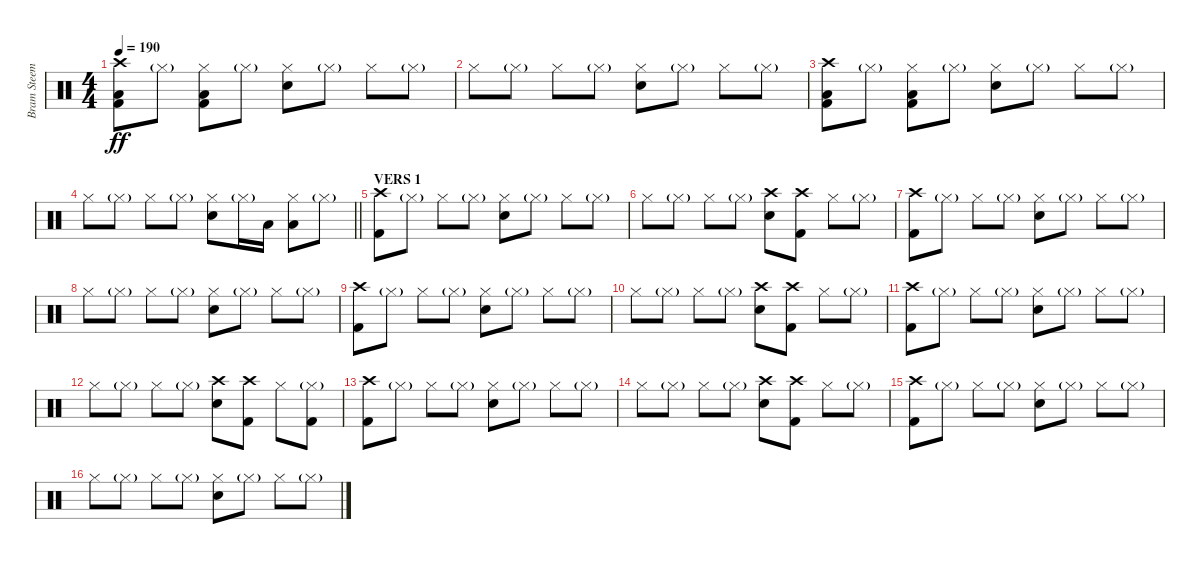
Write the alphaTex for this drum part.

\track ("Bram Steemans" "Bram Steem") {instrument percussion}
\staff {score}
\articulation defaults
\ts (4 4)
\tempo 190
\clef neutral
\ks c
("Crash high (hit)" "Low Floor Tom (hit)" "Kick (hit) 2").8{dy ff} "Hi-Hat (closed)"{g}.8 ("Hi-Hat (closed)" "Low Floor Tom (hit)" "Kick (hit) 2").8 "Hi-Hat (closed)"{g}.8 ("Hi-Hat (closed)" "Snare (hit) 2").8 "Hi-Hat (closed)"{g}.8 "Hi-Hat (closed)".8 "Hi-Hat (closed)"{g}.8 |
"Hi-Hat (closed)".8 "Hi-Hat (closed)"{g}.8 "Hi-Hat (closed)".8 "Hi-Hat (closed)"{g}.8 ("Hi-Hat (closed)" "Snare (hit) 2").8 "Hi-Hat (closed)"{g}.8 "Hi-Hat (closed)".8 "Hi-Hat (closed)"{g}.8 |
("Crash high (hit)" "Low Floor Tom (hit)" "Kick (hit) 2").8 "Hi-Hat (closed)"{g}.8 ("Hi-Hat (closed)" "Low Floor Tom (hit)" "Kick (hit) 2").8 "Hi-Hat (closed)"{g}.8 ("Hi-Hat (closed)" "Snare (hit) 2").8 "Hi-Hat (closed)"{g}.8 "Hi-Hat (closed)".8 "Hi-Hat (closed)"{g}.8 |
\barLineRight lightlight "Hi-Hat (closed)".8 "Hi-Hat (closed)"{g}.8 "Hi-Hat (closed)".8 "Hi-Hat (closed)"{g}.8
("Hi-Hat (closed)" "Snare (hit) 2").8 "Hi-Hat (closed)"{g}.16 "Low Floor Tom (hit)".16 ("Hi-Hat (closed)" "Low Tom (hit)").8 "Hi-Hat (closed)"{g}.8 |
\section ("" "VERS 1")
("Crash high (hit)" "Kick (hit) 2").8 "Hi-Hat (closed)"{g}.8 "Hi-Hat (closed)".8 "Hi-Hat (closed)"{g}.8 ("Hi-Hat (closed)" "Snare (hit) 2").8 "Hi-Hat (closed)"{g}.8 "Hi-Hat (closed)".8 "Hi-Hat (closed)"{g}.8 |
"Hi-Hat (closed)".8 "Hi-Hat (closed)"{g}.8 "Hi-Hat (closed)".8 "Hi-Hat (closed)"{g}.8 ("Crash high (hit)" "Snare (hit) 2").8 ("Crash high (hit)" "Kick (hit) 2").8 "Hi-Hat (closed)".8 "Hi-Hat (closed)"{g}.8 |
("Crash high (hit)" "Kick (hit) 2").8 "Hi-Hat (closed)"{g}.8 "Hi-Hat (closed)".8 "Hi-Hat (closed)"{g}.8 ("Hi-Hat (closed)" "Snare (hit) 2").8 "Hi-Hat (closed)"{g}.8 "Hi-Hat (closed)".8 "Hi-Hat (closed)"{g}.8 |
"Hi-Hat (closed)".8 "Hi-Hat (closed)"{g}.8 "Hi-Hat (closed)".8 "Hi-Hat (closed)"{g}.8 ("Hi-Hat (closed)" "Snare (hit) 2").8 "Hi-Hat (closed)"{g}.8 "Hi-Hat (closed)".8 "Hi-Hat (closed)"{g}.8 |
("Crash high (hit)" "Kick (hit) 2").8 "Hi-Hat (closed)"{g}.8 "Hi-Hat (closed)".8 "Hi-Hat (closed)"{g}.8 ("Hi-Hat (closed)" "Snare (hit) 2").8 "Hi-Hat (closed)"{g}.8 "Hi-Hat (closed)".8 "Hi-Hat (closed)"{g}.8 |
"Hi-Hat (closed)".8 "Hi-Hat (closed)"{g}.8 "Hi-Hat (closed)".8 "Hi-Hat (closed)"{g}.8 ("Crash high (hit)" "Snare (hit) 2").8 ("Crash high (hit)" "Kick (hit) 2").8 "Hi-Hat (closed)".8 "Hi-Hat (closed)"{g}.8 |
("Crash high (hit)" "Kick (hit) 2").8 "Hi-Hat (closed)"{g}.8 "Hi-Hat (closed)".8 "Hi-Hat (closed)"{g}.8 ("Hi-Hat (closed)" "Snare (hit) 2").8 "Hi-Hat (closed)"{g}.8 "Hi-Hat (closed)".8 "Hi-Hat (closed)"{g}.8 |
"Hi-Hat (closed)".8 "Hi-Hat (closed)"{g}.8 "Hi-Hat (closed)".8 "Hi-Hat (closed)"{g}.8 ("Crash high (hit)" "Snare (hit) 2").8 ("Crash high (hit)" "Kick (hit) 2").8 "Hi-Hat (closed)".8 ("Hi-Hat (closed)"{g} "Kick (hit) 2").8 |
("Crash high (hit)" "Kick (hit) 2").8 "Hi-Hat (closed)"{g}.8 "Hi-Hat (closed)".8 "Hi-Hat (closed)"{g}.8 ("Hi-Hat (closed)" "Snare (hit) 2").8 "Hi-Hat (closed)"{g}.8 "Hi-Hat (closed)".8 "Hi-Hat (closed)"{g}.8 |
"Hi-Hat (closed)".8 "Hi-Hat (closed)"{g}.8 "Hi-Hat (closed)".8 "Hi-Hat (closed)"{g}.8 ("Crash high (hit)" "Snare (hit) 2").8 ("Crash high (hit)" "Kick (hit) 2").8 "Hi-Hat (closed)".8 "Hi-Hat (closed)"{g}.8 |
("Crash high (hit)" "Kick (hit) 2").8 "Hi-Hat (closed)"{g}.8 "Hi-Hat (closed)".8 "Hi-Hat (closed)"{g}.8 ("Hi-Hat (closed)" "Snare (hit) 2").8 "Hi-Hat (closed)"{g}.8 "Hi-Hat (closed)".8 "Hi-Hat (closed)"{g}.8 |
"Hi-Hat (closed)".8 "Hi-Hat (closed)"{g}.8 "Hi-Hat (closed)".8 "Hi-Hat (closed)"{g}.8 ("Hi-Hat (closed)" "Snare (hit) 2").8 "Hi-Hat (closed)"{g}.8 "Hi-Hat (closed)".8 "Hi-Hat (closed)"{g}.8
